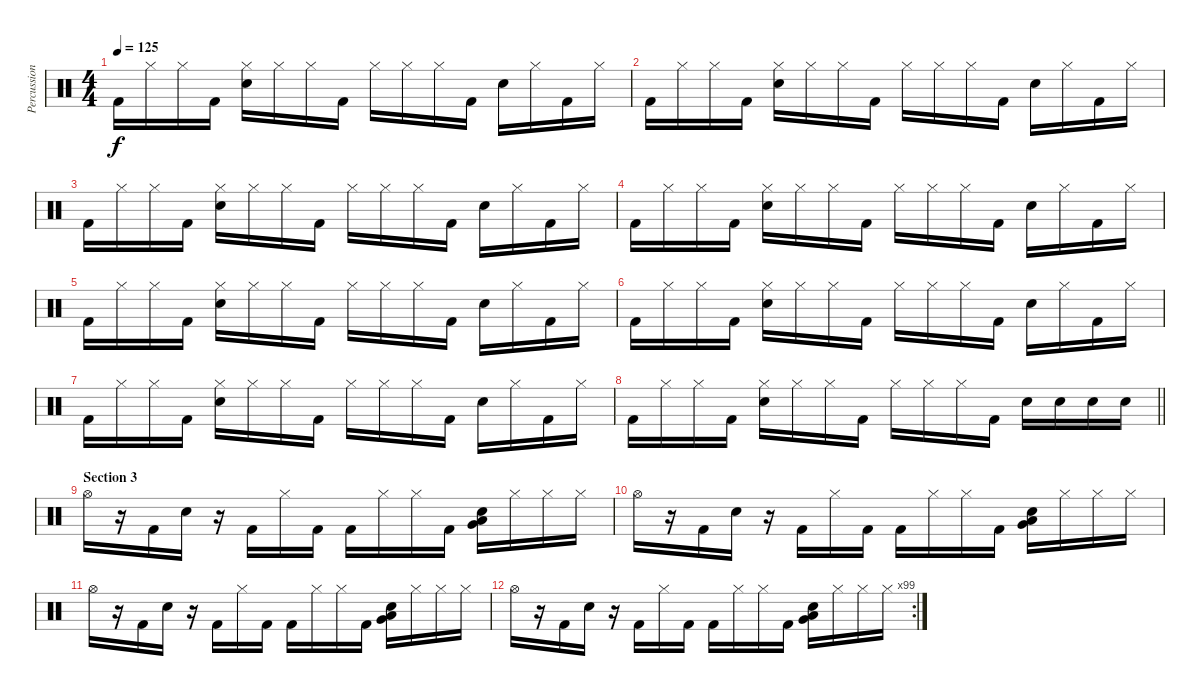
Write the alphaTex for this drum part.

\track ("Percussion" "Percussion") {instrument percussion}
\staff {score}
\articulation defaults
\ts (4 4)
\tempo 125
\clef neutral
\ks c "Kick (hit) 2".16{dy f} "Hi-Hat (closed)".16 "Hi-Hat (closed)".16 "Kick (hit) 2".16
("Hi-Hat (closed)" "Snare (hit) 2").16 "Hi-Hat (closed)".16 "Hi-Hat (closed)".16 "Kick (hit) 2".16 "Hi-Hat (closed)".16 "Hi-Hat (closed)".16 "Hi-Hat (closed)".16 "Kick (hit) 2".16 "Snare (hit) 2".16 "Hi-Hat (closed)".16 "Kick (hit) 2".16 "Hi-Hat (closed)".16 |
"Kick (hit) 2".16 "Hi-Hat (closed)".16 "Hi-Hat (closed)".16 "Kick (hit) 2".16 ("Hi-Hat (closed)" "Snare (hit) 2").16 "Hi-Hat (closed)".16 "Hi-Hat (closed)".16 "Kick (hit) 2".16 "Hi-Hat (closed)".16 "Hi-Hat (closed)".16 "Hi-Hat (closed)".16 "Kick (hit) 2".16 "Snare (hit) 2".16 "Hi-Hat (closed)".16 "Kick (hit) 2".16 "Hi-Hat (closed)".16 |
"Kick (hit) 2".16 "Hi-Hat (closed)".16 "Hi-Hat (closed)".16 "Kick (hit) 2".16 ("Hi-Hat (closed)" "Snare (hit) 2").16 "Hi-Hat (closed)".16 "Hi-Hat (closed)".16 "Kick (hit) 2".16 "Hi-Hat (closed)".16 "Hi-Hat (closed)".16 "Hi-Hat (closed)".16 "Kick (hit) 2".16 "Snare (hit) 2".16 "Hi-Hat (closed)".16 "Kick (hit) 2".16 "Hi-Hat (closed)".16 |
"Kick (hit) 2".16 "Hi-Hat (closed)".16 "Hi-Hat (closed)".16 "Kick (hit) 2".16 ("Hi-Hat (closed)" "Snare (hit) 2").16 "Hi-Hat (closed)".16 "Hi-Hat (closed)".16 "Kick (hit) 2".16 "Hi-Hat (closed)".16 "Hi-Hat (closed)".16 "Hi-Hat (closed)".16 "Kick (hit) 2".16 "Snare (hit) 2".16 "Hi-Hat (closed)".16 "Kick (hit) 2".16 "Hi-Hat (closed)".16 |
"Kick (hit) 2".16 "Hi-Hat (closed)".16 "Hi-Hat (closed)".16 "Kick (hit) 2".16 ("Hi-Hat (closed)" "Snare (hit) 2").16 "Hi-Hat (closed)".16 "Hi-Hat (closed)".16 "Kick (hit) 2".16 "Hi-Hat (closed)".16 "Hi-Hat (closed)".16 "Hi-Hat (closed)".16 "Kick (hit) 2".16 "Snare (hit) 2".16 "Hi-Hat (closed)".16 "Kick (hit) 2".16 "Hi-Hat (closed)".16 |
"Kick (hit) 2".16 "Hi-Hat (closed)".16 "Hi-Hat (closed)".16 "Kick (hit) 2".16 ("Hi-Hat (closed)" "Snare (hit) 2").16 "Hi-Hat (closed)".16 "Hi-Hat (closed)".16 "Kick (hit) 2".16 "Hi-Hat (closed)".16 "Hi-Hat (closed)".16 "Hi-Hat (closed)".16 "Kick (hit) 2".16 "Snare (hit) 2".16 "Hi-Hat (closed)".16 "Kick (hit) 2".16 "Hi-Hat (closed)".16 |
"Kick (hit) 2".16 "Hi-Hat (closed)".16 "Hi-Hat (closed)".16 "Kick (hit) 2".16 ("Hi-Hat (closed)" "Snare (hit) 2").16 "Hi-Hat (closed)".16 "Hi-Hat (closed)".16 "Kick (hit) 2".16 "Hi-Hat (closed)".16 "Hi-Hat (closed)".16 "Hi-Hat (closed)".16 "Kick (hit) 2".16 "Snare (hit) 2".16 "Hi-Hat (closed)".16 "Kick (hit) 2".16 "Hi-Hat (closed)".16 |
\barLineRight lightlight "Kick (hit) 2".16 "Hi-Hat (closed)".16 "Hi-Hat (closed)".16 "Kick (hit) 2".16
("Hi-Hat (closed)" "Snare (hit) 2").16 "Hi-Hat (closed)".16 "Hi-Hat (closed)".16 "Kick (hit) 2".16 "Hi-Hat (closed)".16 "Hi-Hat (closed)".16 "Hi-Hat (closed)".16 "Kick (hit) 2".16 "Snare (hit) 2".16 "Snare (hit) 2".16 "Snare (hit) 2".16 "Snare (hit) 2".16 |
\section ("" "Section 3")
"Hi-Hat (open)".16 r.16 "Kick (hit) 2".16 "Snare (hit) 2".16 r.16 "Kick (hit) 2".16 "Hi-Hat (closed)".16 "Kick (hit) 2".16 "Kick (hit) 2".16 "Hi-Hat (closed)".16 "Hi-Hat (closed)".16 "Kick (hit) 2".16 ("Very Low Tom (hit)" "Low Floor Tom (hit)" "Snare (hit) 2").16 "Hi-Hat (closed)".16 "Hi-Hat (closed)".16 "Hi-Hat (closed)".16 |
"Hi-Hat (open)".16 r.16 "Kick (hit) 2".16 "Snare (hit) 2".16 r.16 "Kick (hit) 2".16 "Hi-Hat (closed)".16 "Kick (hit) 2".16 "Kick (hit) 2".16 "Hi-Hat (closed)".16 "Hi-Hat (closed)".16 "Kick (hit) 2".16 ("Very Low Tom (hit)" "Low Floor Tom (hit)" "Snare (hit) 2").16 "Hi-Hat (closed)".16 "Hi-Hat (closed)".16 "Hi-Hat (closed)".16 |
"Hi-Hat (open)".16 r.16 "Kick (hit) 2".16 "Snare (hit) 2".16 r.16 "Kick (hit) 2".16 "Hi-Hat (closed)".16 "Kick (hit) 2".16 "Kick (hit) 2".16 "Hi-Hat (closed)".16 "Hi-Hat (closed)".16 "Kick (hit) 2".16 ("Very Low Tom (hit)" "Low Floor Tom (hit)" "Snare (hit) 2").16 "Hi-Hat (closed)".16 "Hi-Hat (closed)".16 "Hi-Hat (closed)".16 |
\rc 99 "Hi-Hat (open)".16
r.16 "Kick (hit) 2".16 "Snare (hit) 2".16 r.16 "Kick (hit) 2".16 "Hi-Hat (closed)".16 "Kick (hit) 2".16 "Kick (hit) 2".16 "Hi-Hat (closed)".16 "Hi-Hat (closed)".16 "Kick (hit) 2".16 ("Very Low Tom (hit)" "Low Floor Tom (hit)" "Snare (hit) 2").16 "Hi-Hat (closed)".16 "Hi-Hat (closed)".16 "Hi-Hat (closed)".16
